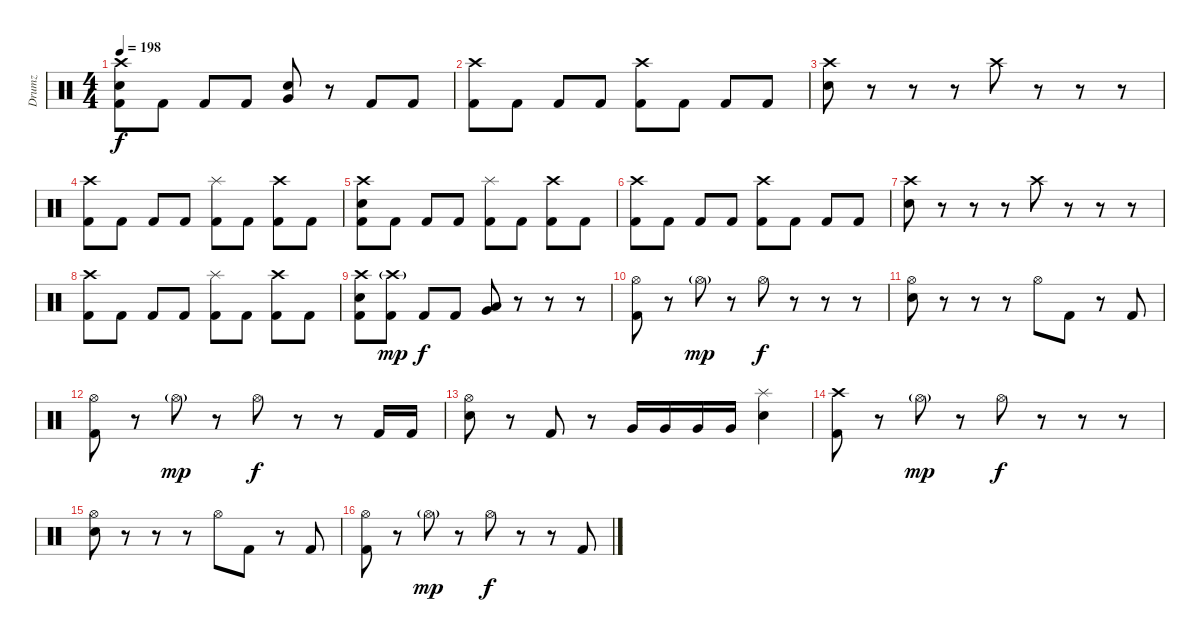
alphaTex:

\track ("Drumz" "Drumz") {instrument percussion}
\staff {score}
\articulation defaults
\ts (4 4)
\tempo 198
\clef neutral
\ks c
("Crash high (hit)" "Electric Snare (hit)" "Kick (hit) 2").8{dy f} "Kick (hit) 2".8 "Kick (hit) 2".8 "Kick (hit) 2".8 ("Electric Snare (hit)" "Very Low Tom (hit)").8 r.8 "Kick (hit) 2".8 "Kick (hit) 2".8 |
("Crash high (hit)" "Kick (hit) 2").8 "Kick (hit) 2".8 "Kick (hit) 2".8 "Kick (hit) 2".8 ("Crash high (hit)" "Kick (hit) 2").8 "Kick (hit) 2".8 "Kick (hit) 2".8 "Kick (hit) 2".8 |
("Crash high (hit)" "Electric Snare (hit)").8 r.8 r.8 r.8 "Crash high (hit)".8 r.8 r.8 r.8 |
("Crash high (hit)" "Kick (hit) 2").8 "Kick (hit) 2".8 "Kick (hit) 2".8 "Kick (hit) 2".8 ("Splash (hit)" "Kick (hit) 2").8 "Kick (hit) 2".8 ("Crash high (hit)" "Kick (hit) 2").8 "Kick (hit) 2".8 |
("Crash high (hit)" "Electric Snare (hit)" "Kick (hit) 2").8 "Kick (hit) 2".8 "Kick (hit) 2".8 "Kick (hit) 2".8 ("Splash (hit)" "Kick (hit) 2").8 "Kick (hit) 2".8 ("Crash high (hit)" "Kick (hit) 2").8 "Kick (hit) 2".8 |
("Crash high (hit)" "Kick (hit) 2").8 "Kick (hit) 2".8 "Kick (hit) 2".8 "Kick (hit) 2".8 ("Crash high (hit)" "Kick (hit) 2").8 "Kick (hit) 2".8 "Kick (hit) 2".8 "Kick (hit) 2".8 |
("Crash high (hit)" "Electric Snare (hit)").8 r.8 r.8 r.8 "Crash high (hit)".8 r.8 r.8 r.8 |
("Crash high (hit)" "Kick (hit) 2").8 "Kick (hit) 2".8 "Kick (hit) 2".8 "Kick (hit) 2".8 ("Splash (hit)" "Kick (hit) 2").8 "Kick (hit) 2".8 ("Crash high (hit)" "Kick (hit) 2").8 "Kick (hit) 2".8 |
("Crash high (hit)" "Electric Snare (hit)" "Kick (hit) 2").8 ("Crash high (hit)"{g} "Kick (hit) 2").8{dy mp} "Kick (hit) 2".8{dy f} "Kick (hit) 2".8 ("Low Tom (hit)" "Very Low Tom (hit)").8 r.8 r.8 r.8 |
("Hi-Hat (open)" "Kick (hit) 2").8 r.8 "Hi-Hat (open)"{g}.8{dy mp} r.8 "Hi-Hat (open)".8{dy f} r.8 r.8 r.8 |
("Hi-Hat (open)" "Electric Snare (hit)").8 r.8 r.8 r.8 "Hi-Hat (open)".8 "Kick (hit) 2".8 r.8 "Kick (hit) 2".8 |
("Hi-Hat (open)" "Kick (hit) 2").8 r.8 "Hi-Hat (open)"{g}.8{dy mp} r.8 "Hi-Hat (open)".8{dy f} r.8 r.8 "Kick (hit) 2".16 "Kick (hit) 2".16 |
("Hi-Hat (open)" "Electric Snare (hit)").8 r.8 "Kick (hit) 2".8 r.8 "Very Low Tom (hit)".16 "Very Low Tom (hit)".16 "Very Low Tom (hit)".16 "Very Low Tom (hit)".16 ("Splash (hit)" "Electric Snare (hit)").4 |
("Crash high (hit)" "Kick (hit) 2").8 r.8 "Hi-Hat (open)"{g}.8{dy mp} r.8 "Hi-Hat (open)".8{dy f} r.8 r.8 r.8 |
("Hi-Hat (open)" "Electric Snare (hit)").8 r.8 r.8 r.8 "Hi-Hat (open)".8 "Kick (hit) 2".8 r.8 "Kick (hit) 2".8 |
("Hi-Hat (open)" "Kick (hit) 2").8 r.8 "Hi-Hat (open)"{g}.8{dy mp} r.8 "Hi-Hat (open)".8{dy f} r.8 r.8 "Kick (hit) 2".8
